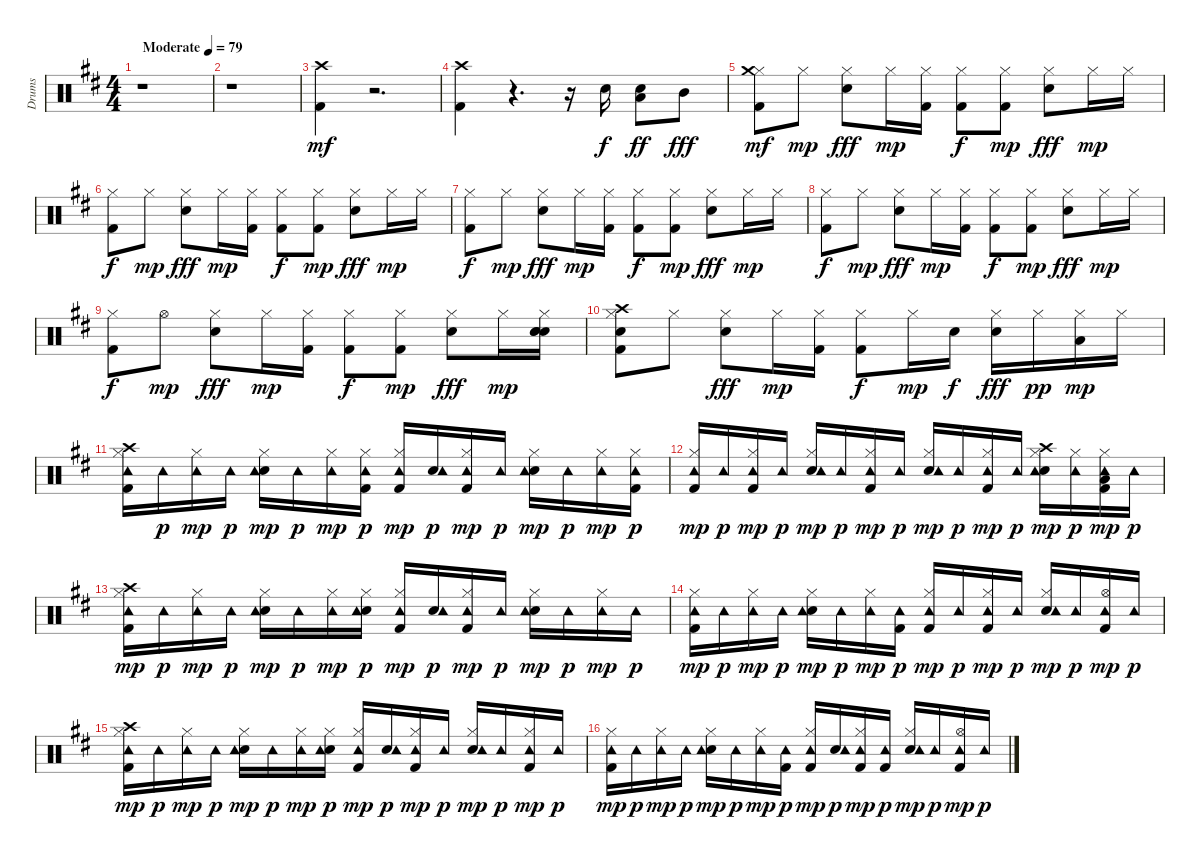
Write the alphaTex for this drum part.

\track ("Drums" "Drums") {instrument percussion}
\staff {score}
\articulation defaults
\ts (4 4)
\tempo (79 "Moderate")
\clef neutral
\ks d
r.1{dy mf} |
r.1 |
("Kick (hit) 2" "Crash high (hit)").4 r.2{d} |
("Kick (hit) 2" "Crash high (hit)").4 r.4{d} r.16 "Electric Snare (hit)".16{dy f} ("Electric Snare (hit)" "Low Floor Tom (hit)").8{dy ff} "Mid Tom (hit)".8{dy fff} |
("Kick (hit) 2" "Hi-Hat (closed)" "Crash medium (hit)").8{dy mf} "Hi-Hat (closed)".8{dy mp} ("Electric Snare (hit)" "Hi-Hat (closed)").8{dy fff} "Hi-Hat (closed)".16{dy mp} ("Kick (hit) 2" "Hi-Hat (closed)").16 ("Kick (hit) 2" "Hi-Hat (closed)").8{dy f} ("Kick (hit) 2" "Hi-Hat (closed)").8{dy mp} ("Electric Snare (hit)" "Hi-Hat (closed)").8{dy fff} "Hi-Hat (closed)".16{dy mp} "Hi-Hat (closed)".16 |
("Kick (hit) 2" "Hi-Hat (closed)").8{dy f} "Hi-Hat (closed)".8{dy mp} ("Electric Snare (hit)" "Hi-Hat (closed)").8{dy fff} "Hi-Hat (closed)".16{dy mp} ("Kick (hit) 2" "Hi-Hat (closed)").16 ("Kick (hit) 2" "Hi-Hat (closed)").8{dy f} ("Kick (hit) 2" "Hi-Hat (closed)").8{dy mp} ("Electric Snare (hit)" "Hi-Hat (closed)").8{dy fff} "Hi-Hat (closed)".16{dy mp} "Hi-Hat (closed)".16 |
("Kick (hit) 2" "Hi-Hat (closed)").8{dy f} "Hi-Hat (closed)".8{dy mp} ("Electric Snare (hit)" "Hi-Hat (closed)").8{dy fff} "Hi-Hat (closed)".16{dy mp} ("Kick (hit) 2" "Hi-Hat (closed)").16 ("Kick (hit) 2" "Hi-Hat (closed)").8{dy f} ("Kick (hit) 2" "Hi-Hat (closed)").8{dy mp} ("Electric Snare (hit)" "Hi-Hat (closed)").8{dy fff} "Hi-Hat (closed)".16{dy mp} "Hi-Hat (closed)".16 |
("Kick (hit) 2" "Hi-Hat (closed)").8{dy f} "Hi-Hat (closed)".8{dy mp} ("Electric Snare (hit)" "Hi-Hat (closed)").8{dy fff} "Hi-Hat (closed)".16{dy mp} ("Kick (hit) 2" "Hi-Hat (closed)").16 ("Kick (hit) 2" "Hi-Hat (closed)").8{dy f} ("Kick (hit) 2" "Hi-Hat (closed)").8{dy mp} ("Electric Snare (hit)" "Hi-Hat (closed)").8{dy fff} "Hi-Hat (closed)".16{dy mp} "Hi-Hat (closed)".16 |
("Kick (hit) 2" "Hi-Hat (closed)").8{dy f} "Hi-Hat (open)".8{dy mp} ("Electric Snare (hit)" "Hi-Hat (closed)").8{dy fff} "Hi-Hat (closed)".16{dy mp} ("Kick (hit) 2" "Hi-Hat (closed)").16 ("Kick (hit) 2" "Hi-Hat (closed)").8{dy f} ("Kick (hit) 2" "Hi-Hat (closed)").8{dy mp} ("Electric Snare (hit)" "Hi-Hat (closed)").8{dy fff} "Hi-Hat (closed)".16{dy mp} ("Electric Snare (hit)" "Electric Snare (hit)" "Electric Snare (hit)" "Hi-Hat (closed)").16 |
("Kick (hit) 2" "Electric Snare (hit)" "Hi-Hat (closed)" "Crash high (hit)").8 "Hi-Hat (closed)".8 ("Electric Snare (hit)" "Hi-Hat (closed)").8{dy fff} "Hi-Hat (closed)".16{dy mp} ("Kick (hit) 2" "Hi-Hat (closed)").16 ("Kick (hit) 2" "Hi-Hat (closed)").8{dy f} "Hi-Hat (closed)".16{dy mp} "Electric Snare (hit)".16{dy f} ("Electric Snare (hit)" "Hi-Hat (closed)").16{dy fff} "Hi-Hat (closed)".16{dy pp} ("Low Floor Tom (hit)" "Hi-Hat (closed)").16{dy mp} "Hi-Hat (closed)".16 |
("Kick (hit) 2" "Hi-Hat (closed)" "Crash high (hit)" "Tambourine (hit)").16 "Tambourine (hit)".16{dy p} ("Hi-Hat (closed)" "Tambourine (hit)").16{dy mp} "Tambourine (hit)".16{dy p} ("Electric Snare (hit)" "Hi-Hat (closed)" "Tambourine (hit)").16{dy mp} "Tambourine (hit)".16{dy p} ("Hi-Hat (closed)" "Tambourine (hit)").16{dy mp} ("Kick (hit) 2" "Hi-Hat (closed)" "Tambourine (hit)").16{dy p} ("Kick (hit) 2" "Hi-Hat (closed)" "Tambourine (hit)").16{dy mp} ("Electric Snare (hit)" "Tambourine (hit)").16{dy p} ("Kick (hit) 2" "Hi-Hat (closed)" "Tambourine (hit)").16{dy mp} "Tambourine (hit)".16{dy p} ("Electric Snare (hit)" "Hi-Hat (closed)" "Tambourine (hit)").16{dy mp} "Tambourine (hit)".16{dy p} ("Hi-Hat (closed)" "Tambourine (hit)").16{dy mp} ("Kick (hit) 2" "Hi-Hat (closed)" "Tambourine (hit)").16{dy p} |
("Kick (hit) 2" "Hi-Hat (closed)" "Tambourine (hit)").16{dy mp} "Tambourine (hit)".16{dy p} ("Kick (hit) 2" "Hi-Hat (closed)" "Tambourine (hit)").16{dy mp} "Tambourine (hit)".16{dy p} ("Electric Snare (hit)" "Hi-Hat (closed)" "Tambourine (hit)").16{dy mp} "Tambourine (hit)".16{dy p} ("Kick (hit) 2" "Hi-Hat (closed)" "Tambourine (hit)").16{dy mp} "Tambourine (hit)".16{dy p} ("Electric Snare (hit)" "Hi-Hat (closed)" "Tambourine (hit)").16{dy mp} "Tambourine (hit)".16{dy p} ("Kick (hit) 2" "Hi-Hat (closed)" "Tambourine (hit)").16{dy mp} "Tambourine (hit)".16{dy p} ("Electric Snare (hit)" "Hi-Hat (closed)" "Crash high (hit)" "Tambourine (hit)").16{dy mp} ("Hi-Hat (closed)" "Tambourine (hit)").16{dy p} ("Kick (hit) 2" "Low Floor Tom (hit)" "Hi-Hat (closed)" "Tambourine (hit)").16{dy mp} "Tambourine (hit)".16{dy p} |
("Kick (hit) 2" "Hi-Hat (closed)" "Crash high (hit)" "Tambourine (hit)").16{dy mp} "Tambourine (hit)".16{dy p} ("Hi-Hat (closed)" "Tambourine (hit)").16{dy mp} "Tambourine (hit)".16{dy p} ("Electric Snare (hit)" "Hi-Hat (closed)" "Tambourine (hit)").16{dy mp} "Tambourine (hit)".16{dy p} ("Hi-Hat (closed)" "Tambourine (hit)").16{dy mp} ("Electric Snare (hit)" "Hi-Hat (closed)" "Tambourine (hit)").16{dy p} ("Kick (hit) 2" "Hi-Hat (closed)" "Tambourine (hit)").16{dy mp} ("Electric Snare (hit)" "Tambourine (hit)").16{dy p} ("Kick (hit) 2" "Hi-Hat (closed)" "Tambourine (hit)").16{dy mp} "Tambourine (hit)".16{dy p} ("Electric Snare (hit)" "Hi-Hat (closed)" "Tambourine (hit)").16{dy mp} "Tambourine (hit)".16{dy p} ("Hi-Hat (closed)" "Tambourine (hit)").16{dy mp} "Tambourine (hit)".16{dy p} |
("Kick (hit) 2" "Hi-Hat (closed)" "Tambourine (hit)").16{dy mp} "Tambourine (hit)".16{dy p} ("Hi-Hat (closed)" "Tambourine (hit)").16{dy mp} "Tambourine (hit)".16{dy p} ("Electric Snare (hit)" "Hi-Hat (closed)" "Tambourine (hit)").16{dy mp} "Tambourine (hit)".16{dy p} ("Hi-Hat (closed)" "Tambourine (hit)").16{dy mp} ("Kick (hit) 2" "Tambourine (hit)").16{dy p} ("Kick (hit) 2" "Hi-Hat (closed)" "Tambourine (hit)").16{dy mp} "Tambourine (hit)".16{dy p} ("Kick (hit) 2" "Hi-Hat (closed)" "Tambourine (hit)").16{dy mp} "Tambourine (hit)".16{dy p} ("Electric Snare (hit)" "Hi-Hat (closed)" "Tambourine (hit)").16{dy mp} "Tambourine (hit)".16{dy p} ("Kick (hit) 2" "Hi-Hat (open)" "Tambourine (hit)").16{dy mp} "Tambourine (hit)".16{dy p} |
("Kick (hit) 2" "Hi-Hat (closed)" "Crash high (hit)" "Tambourine (hit)").16{dy mp} "Tambourine (hit)".16{dy p} ("Hi-Hat (closed)" "Tambourine (hit)").16{dy mp} "Tambourine (hit)".16{dy p} ("Electric Snare (hit)" "Hi-Hat (closed)" "Tambourine (hit)").16{dy mp} "Tambourine (hit)".16{dy p} ("Hi-Hat (closed)" "Tambourine (hit)").16{dy mp} ("Electric Snare (hit)" "Hi-Hat (closed)" "Tambourine (hit)").16{dy p} ("Kick (hit) 2" "Hi-Hat (closed)" "Tambourine (hit)").16{dy mp} ("Electric Snare (hit)" "Tambourine (hit)").16{dy p} ("Kick (hit) 2" "Hi-Hat (closed)" "Tambourine (hit)").16{dy mp} "Tambourine (hit)".16{dy p} ("Electric Snare (hit)" "Hi-Hat (closed)" "Tambourine (hit)").16{dy mp} "Tambourine (hit)".16{dy p} ("Kick (hit) 2" "Hi-Hat (closed)" "Tambourine (hit)").16{dy mp} "Tambourine (hit)".16{dy p} |
("Kick (hit) 2" "Hi-Hat (closed)" "Tambourine (hit)").16{dy mp} "Tambourine (hit)".16{dy p} ("Hi-Hat (closed)" "Tambourine (hit)").16{dy mp} "Tambourine (hit)".16{dy p} ("Electric Snare (hit)" "Hi-Hat (closed)" "Tambourine (hit)").16{dy mp} "Tambourine (hit)".16{dy p} ("Hi-Hat (closed)" "Tambourine (hit)").16{dy mp} ("Kick (hit) 2" "Tambourine (hit)").16{dy p} ("Kick (hit) 2" "Hi-Hat (closed)" "Tambourine (hit)").16{dy mp} ("Electric Snare (hit)" "Tambourine (hit)").16{dy p} ("Kick (hit) 2" "Hi-Hat (closed)" "Tambourine (hit)").16{dy mp} ("Kick (hit) 2" "Tambourine (hit)").16{dy p} ("Electric Snare (hit)" "Hi-Hat (closed)" "Tambourine (hit)").16{dy mp} "Tambourine (hit)".16{dy p} ("Kick (hit) 2" "Hi-Hat (open)" "Tambourine (hit)").16{dy mp} "Tambourine (hit)".16{dy p}
